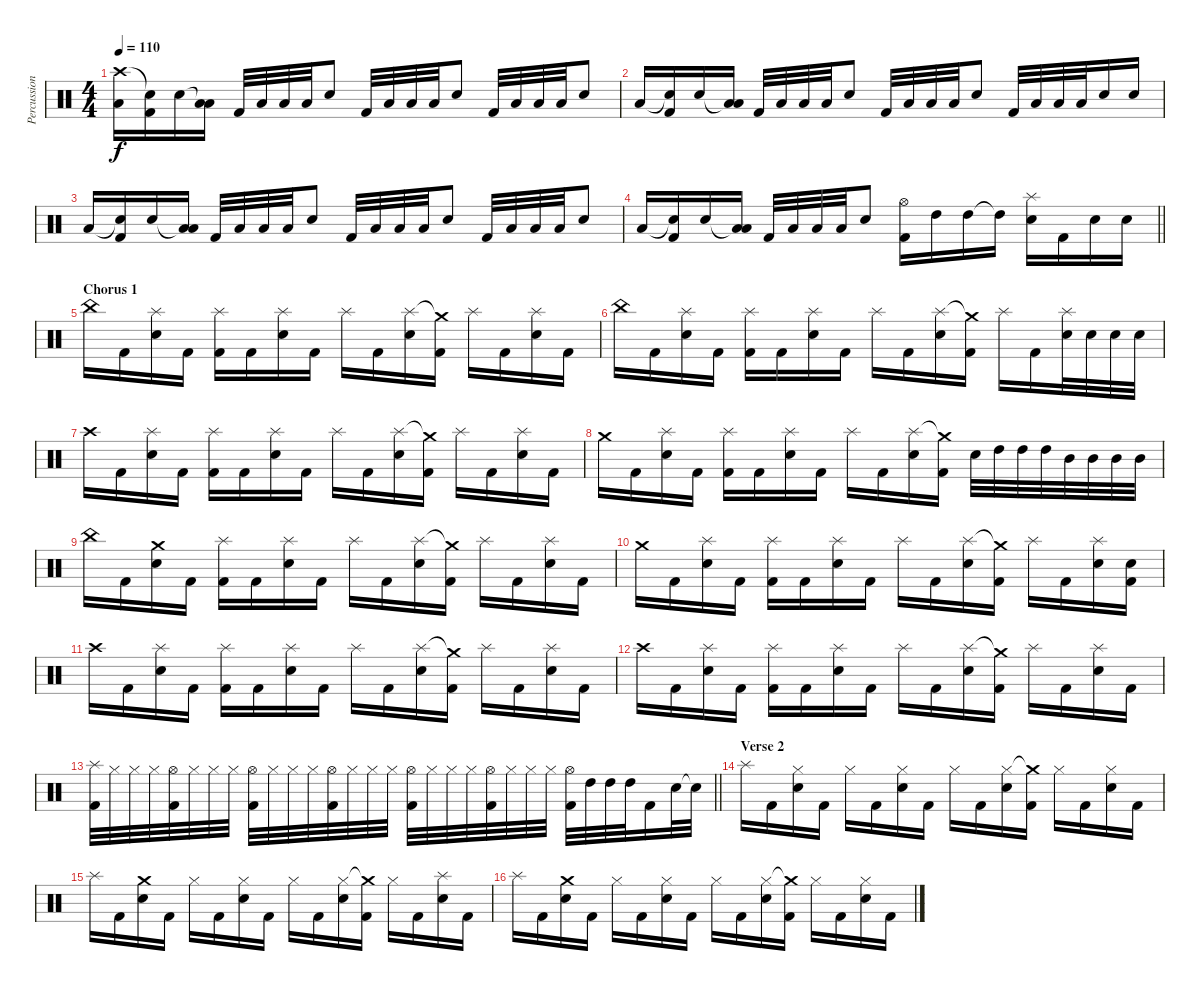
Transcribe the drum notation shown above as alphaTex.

\track ("Percussion" "Percussion") {instrument percussion}
\staff {score}
\articulation defaults
\ts (4 4)
\tempo 110
\clef neutral
\ks c
("Crash high (hit)" "Low Tom (hit)").16{dy f} ("Electric Snare (hit)"{t} "Kick (hit) 2").16 "Electric Snare (hit)".16 ("Low Floor Tom (hit)"{t} "Low Tom (hit)").16 "Kick (hit) 2".32 "Low Tom (hit)".32 "Low Tom (hit)".32 "Low Tom (hit)".32 "Electric Snare (hit)".8 "Kick (hit) 2".32 "Low Tom (hit)".32 "Low Tom (hit)".32 "Low Tom (hit)".32 "Electric Snare (hit)".8 "Kick (hit) 2".32 "Low Tom (hit)".32 "Low Tom (hit)".32 "Low Tom (hit)".32 "Electric Snare (hit)".8 |
"Low Tom (hit)".16 ("Electric Snare (hit)"{t} "Kick (hit) 2").16 "Electric Snare (hit)".16 ("Low Floor Tom (hit)"{t} "Low Tom (hit)").16 "Kick (hit) 2".32 "Low Tom (hit)".32 "Low Tom (hit)".32 "Low Tom (hit)".32 "Electric Snare (hit)".8 "Kick (hit) 2".32 "Low Tom (hit)".32 "Low Tom (hit)".32 "Low Tom (hit)".32 "Electric Snare (hit)".8 "Kick (hit) 2".32 "Low Tom (hit)".32 "Low Tom (hit)".32 "Low Tom (hit)".32 "Electric Snare (hit)".16 "Electric Snare (hit)".16 |
"Low Tom (hit)".16 ("Electric Snare (hit)"{t} "Kick (hit) 2").16 "Electric Snare (hit)".16 ("Low Floor Tom (hit)"{t} "Low Tom (hit)").16 "Kick (hit) 2".32 "Low Tom (hit)".32 "Low Tom (hit)".32 "Low Tom (hit)".32 "Electric Snare (hit)".8 "Kick (hit) 2".32 "Low Tom (hit)".32 "Low Tom (hit)".32 "Low Tom (hit)".32 "Electric Snare (hit)".8 "Kick (hit) 2".32 "Low Tom (hit)".32 "Low Tom (hit)".32 "Low Tom (hit)".32 "Electric Snare (hit)".8 |
\barLineRight lightlight "Low Tom (hit)".16
("Electric Snare (hit)"{t} "Kick (hit) 2").16 "Electric Snare (hit)".16 ("Low Floor Tom (hit)"{t} "Low Tom (hit)").16 "Kick (hit) 2".32 "Low Tom (hit)".32 "Low Tom (hit)".32 "Low Tom (hit)".32 "Electric Snare (hit)".8 ("Hi-Hat (open)" "Kick (hit) 2").16 "High Tom (hit)".16 "High Tom (hit)".16 "High Tom (hit)"{t}.16 ("Splash (hit)" "Electric Snare (hit)").16 "Kick (hit) 2".16 "Electric Snare (hit)".16 "Electric Snare (hit)".16 |
\section ("" "Chorus 1")
"China (hit)".16 "Kick (hit) 2".16 ("Splash (hit)" "Electric Snare (hit)").16 "Kick (hit) 2".16 ("Splash (hit)" "Kick (hit) 2").16 "Kick (hit) 2".16 ("Splash (hit)" "Electric Snare (hit)").16 "Kick (hit) 2".16 "Splash (hit)".16 "Kick (hit) 2".16 ("Splash (hit)" "Electric Snare (hit)").16 ("Crash medium (hit)"{t} "Kick (hit) 2").16 "Splash (hit)".16 "Kick (hit) 2".16 ("Electric Snare (hit)" "Splash (hit)").16 "Kick (hit) 2".16 |
"China (hit)".16 "Kick (hit) 2".16 ("Splash (hit)" "Electric Snare (hit)").16 "Kick (hit) 2".16 ("Splash (hit)" "Kick (hit) 2").16 "Kick (hit) 2".16 ("Splash (hit)" "Electric Snare (hit)").16 "Kick (hit) 2".16 "Splash (hit)".16 "Kick (hit) 2".16 ("Splash (hit)" "Electric Snare (hit)").16 ("Crash medium (hit)"{t} "Kick (hit) 2").16 "Splash (hit)".16 "Kick (hit) 2".16 ("Electric Snare (hit)" "Splash (hit)").32 "Electric Snare (hit)".32 "Electric Snare (hit)".32 "Electric Snare (hit)".32 |
"Crash high (hit)".16 "Kick (hit) 2".16 ("Splash (hit)" "Electric Snare (hit)").16 "Kick (hit) 2".16 ("Splash (hit)" "Kick (hit) 2").16 "Kick (hit) 2".16 ("Splash (hit)" "Electric Snare (hit)").16 "Kick (hit) 2".16 "Splash (hit)".16 "Kick (hit) 2".16 ("Splash (hit)" "Electric Snare (hit)").16 ("Crash medium (hit)"{t} "Kick (hit) 2").16 "Splash (hit)".16 "Kick (hit) 2".16 ("Electric Snare (hit)" "Splash (hit)").16 "Kick (hit) 2".16 |
"Crash medium (hit)".16 "Kick (hit) 2".16 ("Splash (hit)" "Electric Snare (hit)").16 "Kick (hit) 2".16 ("Splash (hit)" "Kick (hit) 2").16 "Kick (hit) 2".16 ("Splash (hit)" "Electric Snare (hit)").16 "Kick (hit) 2".16 "Splash (hit)".16 "Kick (hit) 2".16 ("Splash (hit)" "Electric Snare (hit)").16 ("Crash medium (hit)"{t} "Kick (hit) 2").16 "Electric Snare (hit)".32 "High Tom (hit)".32 "High Tom (hit)".32 "High Tom (hit)".32 "Mid Tom (hit)".32 "Mid Tom (hit)".32 "Mid Tom (hit)".32 "Mid Tom (hit)".32 |
"China (hit)".16 "Kick (hit) 2".16 ("Crash medium (hit)" "Electric Snare (hit)").16 "Kick (hit) 2".16 ("Splash (hit)" "Kick (hit) 2").16 "Kick (hit) 2".16 ("Splash (hit)" "Electric Snare (hit)").16 "Kick (hit) 2".16 "Splash (hit)".16 "Kick (hit) 2".16 ("Splash (hit)" "Electric Snare (hit)").16 ("Crash medium (hit)"{t} "Kick (hit) 2").16 "Splash (hit)".16 "Kick (hit) 2".16 ("Electric Snare (hit)" "Splash (hit)").16 "Kick (hit) 2".16 |
"Crash medium (hit)".16 "Kick (hit) 2".16 ("Splash (hit)" "Electric Snare (hit)").16 "Kick (hit) 2".16 ("Splash (hit)" "Kick (hit) 2").16 "Kick (hit) 2".16 ("Splash (hit)" "Electric Snare (hit)").16 "Kick (hit) 2".16 "Splash (hit)".16 "Kick (hit) 2".16 ("Splash (hit)" "Electric Snare (hit)").16 ("Crash medium (hit)"{t} "Kick (hit) 2").16 "Splash (hit)".16 "Kick (hit) 2".16 ("Electric Snare (hit)" "Splash (hit)").16 ("Electric Snare (hit)" "Kick (hit) 2").16 |
"Crash high (hit)".16 "Kick (hit) 2".16 ("Splash (hit)" "Electric Snare (hit)").16 "Kick (hit) 2".16 ("Splash (hit)" "Kick (hit) 2").16 "Kick (hit) 2".16 ("Splash (hit)" "Electric Snare (hit)").16 "Kick (hit) 2".16 "Splash (hit)".16 "Kick (hit) 2".16 ("Splash (hit)" "Electric Snare (hit)").16 ("Crash medium (hit)"{t} "Kick (hit) 2").16 "Splash (hit)".16 "Kick (hit) 2".16 ("Electric Snare (hit)" "Splash (hit)").16 "Kick (hit) 2".16 |
"Crash high (hit)".16 "Kick (hit) 2".16 ("Splash (hit)" "Electric Snare (hit)").16 "Kick (hit) 2".16 ("Splash (hit)" "Kick (hit) 2").16 "Kick (hit) 2".16 ("Splash (hit)" "Electric Snare (hit)").16 "Kick (hit) 2".16 "Splash (hit)".16 "Kick (hit) 2".16 ("Splash (hit)" "Electric Snare (hit)").16 ("Crash medium (hit)"{t} "Kick (hit) 2").16 "Splash (hit)".16 "Kick (hit) 2".16 ("Electric Snare (hit)" "Splash (hit)").16 "Kick (hit) 2".16 |
\barLineRight lightlight
("Splash (hit)" "Kick (hit) 2").32 "Hi-Hat (closed)".32 "Hi-Hat (closed)".32 "Hi-Hat (closed)".32 ("Hi-Hat (open)" "Kick (hit) 2").32 "Hi-Hat (closed)".32 "Hi-Hat (closed)".32 "Hi-Hat (closed)".32 ("Hi-Hat (open)" "Kick (hit) 2").32 "Hi-Hat (closed)".32 "Hi-Hat (closed)".32 "Hi-Hat (closed)".32 ("Hi-Hat (open)" "Kick (hit) 2").32 "Hi-Hat (closed)".32 "Hi-Hat (closed)".32 "Hi-Hat (closed)".32 ("Hi-Hat (open)" "Kick (hit) 2").32 "Hi-Hat (closed)".32 "Hi-Hat (closed)".32 "Hi-Hat (closed)".32 ("Hi-Hat (open)" "Kick (hit) 2").32 "Hi-Hat (closed)".32 "Hi-Hat (closed)".32 "Hi-Hat (closed)".32 ("Hi-Hat (open)" "Kick (hit) 2").32 "High Tom (hit)".32 "High Tom (hit)".32 "High Tom (hit)".32 "Kick (hit) 2".16 "Electric Snare (hit)".32 "Electric Snare (hit)"{t}.32 |
\section ("" "Verse 2")
"Splash (hit)".16 "Kick (hit) 2".16 ("Hi-Hat (closed)" "Electric Snare (hit)").16 "Kick (hit) 2".16 "Hi-Hat (closed)".16 "Kick (hit) 2".16 ("Hi-Hat (closed)" "Electric Snare (hit)").16 "Kick (hit) 2".16 "Hi-Hat (closed)".16 "Kick (hit) 2".16 ("Hi-Hat (closed)" "Electric Snare (hit)").16 ("Crash medium (hit)"{t} "Kick (hit) 2").16 "Hi-Hat (closed)".16 "Kick (hit) 2".16 ("Electric Snare (hit)" "Hi-Hat (closed)").16 "Kick (hit) 2".16 |
"Splash (hit)".16 "Kick (hit) 2".16 ("Crash medium (hit)" "Electric Snare (hit)").16 "Kick (hit) 2".16 "Hi-Hat (closed)".16 "Kick (hit) 2".16 ("Hi-Hat (closed)" "Electric Snare (hit)").16 "Kick (hit) 2".16 "Hi-Hat (closed)".16 "Kick (hit) 2".16 ("Hi-Hat (closed)" "Electric Snare (hit)").16 ("Crash medium (hit)"{t} "Kick (hit) 2").16 "Hi-Hat (closed)".16 "Kick (hit) 2".16 ("Electric Snare (hit)" "Splash (hit)").16 "Kick (hit) 2".16 |
"Splash (hit)".16 "Kick (hit) 2".16 ("Crash medium (hit)" "Electric Snare (hit)").16 "Kick (hit) 2".16 "Hi-Hat (closed)".16 "Kick (hit) 2".16 ("Hi-Hat (closed)" "Electric Snare (hit)").16 "Kick (hit) 2".16 "Hi-Hat (closed)".16 "Kick (hit) 2".16 ("Hi-Hat (closed)" "Electric Snare (hit)").16 ("Crash medium (hit)"{t} "Kick (hit) 2").16 "Hi-Hat (closed)".16 "Kick (hit) 2".16 ("Electric Snare (hit)" "Hi-Hat (closed)").16 "Kick (hit) 2".16
